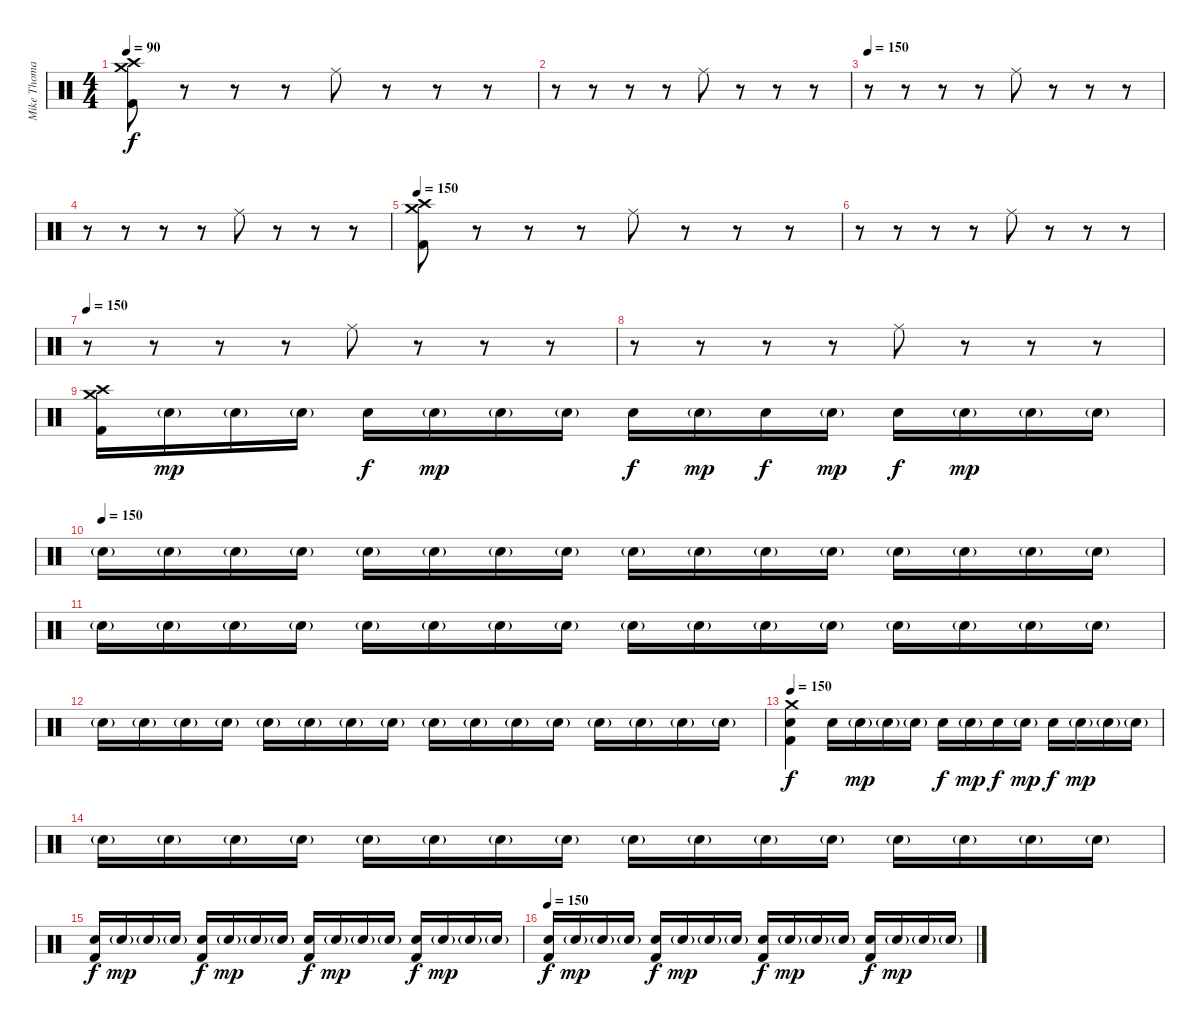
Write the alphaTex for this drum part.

\track ("Mike Thomas (moose)" "Mike Thoma") {instrument percussion}
\staff {score}
\articulation defaults
\ts (4 4)
\tempo 90
\tempo 150
\tempo 90
\clef neutral
\ks c
("Crash high (hit)" "Crash medium (hit)" "Kick (hit) 2").8{dy f} r.8 r.8 r.8 "Ride (middle)".8 r.8 r.8 r.8 |
r.8 r.8 r.8 r.8 "Ride (middle)".8 r.8 r.8 r.8 |
\tempo 150
r.8 r.8 r.8 r.8 "Ride (middle)".8 r.8 r.8 r.8 |
r.8 r.8 r.8 r.8 "Ride (middle)".8 r.8 r.8 r.8 |
\tempo 150
("Crash high (hit)" "Crash medium (hit)" "Kick (hit) 2").8 r.8 r.8 r.8 "Ride (middle)".8 r.8 r.8 r.8 |
r.8 r.8 r.8 r.8 "Ride (middle)".8 r.8 r.8 r.8 |
\tempo 150
r.8 r.8 r.8 r.8 "Ride (middle)".8 r.8 r.8 r.8 |
r.8 r.8 r.8 r.8 "Ride (middle)".8 r.8 r.8 r.8 |
("Crash high (hit)" "Crash medium (hit)" "Kick (hit) 2").16 "Electric Snare (hit)"{g}.16{dy mp} "Electric Snare (hit)"{g}.16 "Electric Snare (hit)"{g}.16 "Electric Snare (hit)".16{dy f} "Electric Snare (hit)"{g}.16{dy mp} "Electric Snare (hit)"{g}.16 "Electric Snare (hit)"{g}.16 "Electric Snare (hit)".16{dy f} "Electric Snare (hit)"{g}.16{dy mp} "Electric Snare (hit)".16{dy f} "Electric Snare (hit)"{g}.16{dy mp} "Electric Snare (hit)".16{dy f} "Electric Snare (hit)"{g}.16{dy mp} "Electric Snare (hit)"{g}.16 "Electric Snare (hit)"{g}.16 |
\tempo (150)
"Electric Snare (hit)"{g}.16 "Electric Snare (hit)"{g}.16 "Electric Snare (hit)"{g}.16 "Electric Snare (hit)"{g}.16 "Electric Snare (hit)"{g}.16 "Electric Snare (hit)"{g}.16 "Electric Snare (hit)"{g}.16 "Electric Snare (hit)"{g}.16 "Electric Snare (hit)"{g}.16 "Electric Snare (hit)"{g}.16 "Electric Snare (hit)"{g}.16 "Electric Snare (hit)"{g}.16 "Electric Snare (hit)"{g}.16 "Electric Snare (hit)"{g}.16 "Electric Snare (hit)"{g}.16 "Electric Snare (hit)"{g}.16 |
"Electric Snare (hit)"{g}.16 "Electric Snare (hit)"{g}.16 "Electric Snare (hit)"{g}.16 "Electric Snare (hit)"{g}.16 "Electric Snare (hit)"{g}.16 "Electric Snare (hit)"{g}.16 "Electric Snare (hit)"{g}.16 "Electric Snare (hit)"{g}.16 "Electric Snare (hit)"{g}.16 "Electric Snare (hit)"{g}.16 "Electric Snare (hit)"{g}.16 "Electric Snare (hit)"{g}.16 "Electric Snare (hit)"{g}.16 "Electric Snare (hit)"{g}.16 "Electric Snare (hit)"{g}.16 "Electric Snare (hit)"{g}.16 |
"Electric Snare (hit)"{g}.16 "Electric Snare (hit)"{g}.16 "Electric Snare (hit)"{g}.16 "Electric Snare (hit)"{g}.16 "Electric Snare (hit)"{g}.16 "Electric Snare (hit)"{g}.16 "Electric Snare (hit)"{g}.16 "Electric Snare (hit)"{g}.16 "Electric Snare (hit)"{g}.16 "Electric Snare (hit)"{g}.16 "Electric Snare (hit)"{g}.16 "Electric Snare (hit)"{g}.16 "Electric Snare (hit)"{g}.16 "Electric Snare (hit)"{g}.16 "Electric Snare (hit)"{g}.16 "Electric Snare (hit)"{g}.16 |
\tempo 150
("Crash medium (hit)" "Electric Snare (hit)" "Kick (hit) 2").4{dy f} "Electric Snare (hit)".16 "Electric Snare (hit)"{g}.16{dy mp} "Electric Snare (hit)"{g}.16 "Electric Snare (hit)"{g}.16 "Electric Snare (hit)".16{dy f} "Electric Snare (hit)"{g}.16{dy mp} "Electric Snare (hit)".16{dy f} "Electric Snare (hit)"{g}.16{dy mp} "Electric Snare (hit)".16{dy f} "Electric Snare (hit)"{g}.16{dy mp} "Electric Snare (hit)"{g}.16 "Electric Snare (hit)"{g}.16 |
"Electric Snare (hit)"{g}.16 "Electric Snare (hit)"{g}.16 "Electric Snare (hit)"{g}.16 "Electric Snare (hit)"{g}.16 "Electric Snare (hit)"{g}.16 "Electric Snare (hit)"{g}.16 "Electric Snare (hit)"{g}.16 "Electric Snare (hit)"{g}.16 "Electric Snare (hit)"{g}.16 "Electric Snare (hit)"{g}.16 "Electric Snare (hit)"{g}.16 "Electric Snare (hit)"{g}.16 "Electric Snare (hit)"{g}.16 "Electric Snare (hit)"{g}.16 "Electric Snare (hit)"{g}.16 "Electric Snare (hit)"{g}.16 |
("Electric Snare (hit)" "Kick (hit) 2").16{dy f} "Electric Snare (hit)"{g}.16{dy mp} "Electric Snare (hit)"{g}.16 "Electric Snare (hit)"{g}.16 ("Electric Snare (hit)" "Kick (hit) 2").16{dy f} "Electric Snare (hit)"{g}.16{dy mp} "Electric Snare (hit)"{g}.16 "Electric Snare (hit)"{g}.16 ("Electric Snare (hit)" "Kick (hit) 2").16{dy f} "Electric Snare (hit)"{g}.16{dy mp} "Electric Snare (hit)"{g}.16 "Electric Snare (hit)"{g}.16 ("Electric Snare (hit)" "Kick (hit) 2").16{dy f} "Electric Snare (hit)"{g}.16{dy mp} "Electric Snare (hit)"{g}.16 "Electric Snare (hit)"{g}.16 |
\tempo 150
("Electric Snare (hit)" "Kick (hit) 2").16{dy f} "Electric Snare (hit)"{g}.16{dy mp} "Electric Snare (hit)"{g}.16 "Electric Snare (hit)"{g}.16 ("Electric Snare (hit)" "Kick (hit) 2").16{dy f} "Electric Snare (hit)"{g}.16{dy mp} "Electric Snare (hit)"{g}.16 "Electric Snare (hit)"{g}.16 ("Electric Snare (hit)" "Kick (hit) 2").16{dy f} "Electric Snare (hit)"{g}.16{dy mp} "Electric Snare (hit)"{g}.16 "Electric Snare (hit)"{g}.16 ("Electric Snare (hit)" "Kick (hit) 2").16{dy f} "Electric Snare (hit)"{g}.16{dy mp} "Electric Snare (hit)"{g}.16 "Electric Snare (hit)"{g}.16
